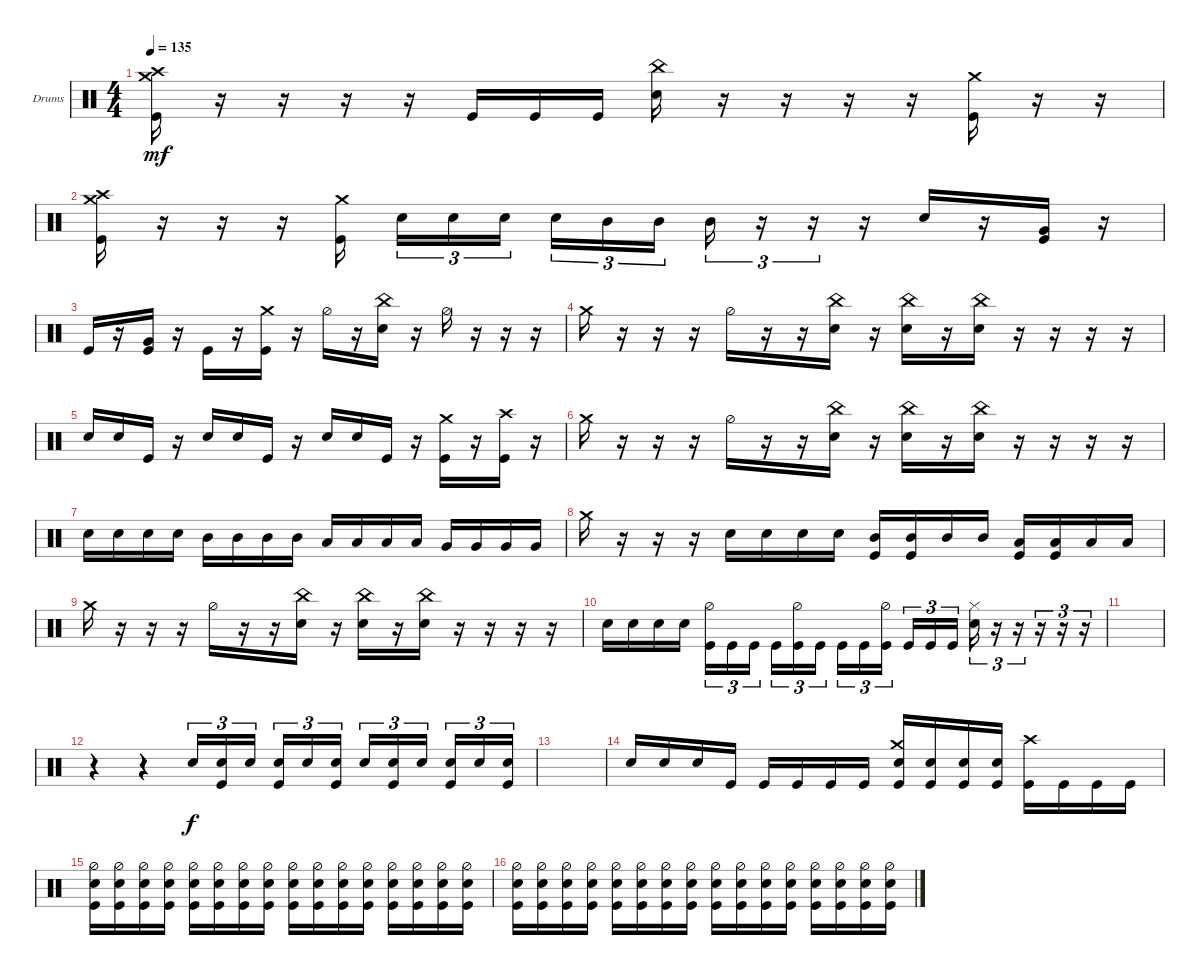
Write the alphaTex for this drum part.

\bracketExtendMode groupsimilarinstruments
\firstSystemTrackNameOrientation horizontal
\otherSystemsTrackNameOrientation horizontal
\track ("Drumkit" "Drums") {instrument percussion}
\staff {score}
\articulation defaults
\ts (4 4)
\tempo 135
\clef neutral
\ks c
("Kick (hit)" "Crash medium (hit)" "Crash high (hit)").16{dy mf} r.16 r.16 r.16 r.16 "Kick (hit)".16 "Kick (hit)".16 "Kick (hit)".16 ("Snare (hit) 2" "China (hit)").16 r.16 r.16 r.16 r.16 ("Crash medium (hit)" "Kick (hit)").16 r.16 r.16 |
("Kick (hit)" "Crash medium (hit)" "Crash high (hit)").16 r.16 r.16 r.16 ("Crash medium (hit)" "Kick (hit)").16 "Snare (hit) 2".16{tu (3 2)} "Snare (hit) 2".16{tu (3 2)} "Snare (hit) 2".16{tu (3 2)} "Snare (hit) 2".16{tu (3 2)} "Mid Tom (hit)".16{tu (3 2)} "Mid Tom (hit)".16{tu (3 2)} "Mid Tom (hit)".16{tu (3 2)} r.16{tu (3 2)} r.16{tu (3 2)} r.16 "Snare (hit) 2".16 r.16 ("Kick (hit)" "Very Low Tom (hit)").16 r.16 |
"Kick (hit)".16 r.16 ("Kick (hit)" "Very Low Tom (hit)").16 r.16 "Kick (hit)".16 r.16 ("Crash medium (hit)" "Kick (hit)").16 r.16 "Hi-Hat (half)".16 r.16 ("China (hit)" "Snare (hit) 2").16 r.16 "Hi-Hat (half)".16 r.16 r.16 r.16 |
"Crash medium (hit)".16 r.16 r.16 r.16 "Hi-Hat (half)".16 r.16 r.16 ("Snare (hit) 2" "China (hit)").16 r.16 ("Snare (hit) 2" "China (hit)").16 r.16 ("Snare (hit) 2" "China (hit)").16 r.16 r.16 r.16 r.16 |
"Snare (hit) 2".16 "Snare (hit) 2".16 "Kick (hit)".16 r.16 "Snare (hit) 2".16 "Snare (hit) 2".16 "Kick (hit)".16 r.16 "Snare (hit) 2".16 "Snare (hit) 2".16 "Kick (hit)".16 r.16 ("Kick (hit)" "Crash medium (hit)").16 r.16 ("Kick (hit)" "Crash high (hit)").16 r.16 |
"Crash medium (hit)".16 r.16 r.16 r.16 "Hi-Hat (half)".16 r.16 r.16 ("Snare (hit) 2" "China (hit)").16 r.16 ("Snare (hit) 2" "China (hit)").16 r.16 ("Snare (hit) 2" "China (hit)").16 r.16 r.16 r.16 r.16 |
"Snare (hit) 2".16 "Snare (hit) 2".16 "Snare (hit) 2".16 "Snare (hit) 2".16 "Mid Tom (hit)".16 "Mid Tom (hit)".16 "Mid Tom (hit)".16 "Mid Tom (hit)".16 "Low Tom (hit)".16 "Low Tom (hit)".16 "Low Tom (hit)".16 "Low Tom (hit)".16 "Very Low Tom (hit)".16 "Very Low Tom (hit)".16 "Very Low Tom (hit)".16 "Very Low Tom (hit)".16 |
"Crash medium (hit)".16 r.16 r.16 r.16 "Snare (hit) 2".16 "Snare (hit) 2".16 "Snare (hit) 2".16 "Snare (hit) 2".16 ("Mid Tom (hit)" "Kick (hit)").16 ("Mid Tom (hit)" "Kick (hit)").16 "Mid Tom (hit)".16 "Mid Tom (hit)".16 ("Low Tom (hit)" "Kick (hit)").16 ("Low Tom (hit)" "Kick (hit)").16 "Low Tom (hit)".16 "Low Tom (hit)".16 |
"Crash medium (hit)".16 r.16 r.16 r.16 "Hi-Hat (half)".16 r.16 r.16 ("Snare (hit) 2" "China (hit)").16 r.16 ("Snare (hit) 2" "China (hit)").16 r.16 ("Snare (hit) 2" "China (hit)").16 r.16 r.16 r.16 r.16 |
"Snare (hit) 2".16 "Snare (hit) 2".16 "Snare (hit) 2".16 "Snare (hit) 2".16 ("Kick (hit)" "Hi-Hat (half)").16{tu (3 2)} "Kick (hit)".16{tu (3 2)} "Kick (hit)".16{tu (3 2)} "Kick (hit)".16{tu (3 2)} ("Kick (hit)" "Hi-Hat (half)").16{tu (3 2)} "Kick (hit)".16{tu (3 2)} "Kick (hit)".16{tu (3 2)} "Kick (hit)".16{tu (3 2)} ("Kick (hit)" "Hi-Hat (half)").16{tu (3 2)} "Kick (hit)".16{tu (3 2)} "Kick (hit)".16{tu (3 2)} "Kick (hit)".16{tu (3 2)} ("Hi-Hat (closed)" "Snare (hit) 2").16{tu (3 2)} r.16{tu (3 2)} r.16{tu (3 2)} r.16{tu (3 2)} r.16{tu (3 2)} r.16{tu (3 2)} |
|
r.4 r.4 "Snare (hit) 2".16{tu (3 2) dy f} ("Snare (hit) 2" "Kick (hit)").16{tu (3 2)} "Snare (hit) 2".16{tu (3 2)} ("Snare (hit) 2" "Kick (hit)").16{tu (3 2)} "Snare (hit) 2".16{tu (3 2)} ("Snare (hit) 2" "Kick (hit)").16{tu (3 2)} "Snare (hit) 2".16{tu (3 2)} ("Snare (hit) 2" "Kick (hit)").16{tu (3 2)} "Snare (hit) 2".16{tu (3 2)} ("Snare (hit) 2" "Kick (hit)").16{tu (3 2)} "Snare (hit) 2".16{tu (3 2)} ("Snare (hit) 2" "Kick (hit)").16{tu (3 2)} |
|
"Snare (hit) 2".16 "Snare (hit) 2".16 "Snare (hit) 2".16 "Kick (hit)".16 "Kick (hit)".16 "Kick (hit)".16 "Kick (hit)".16 "Kick (hit)".16 ("Kick (hit)" "Snare (hit) 2" "Crash medium (hit)").16 ("Kick (hit)" "Snare (hit) 2").16 ("Kick (hit)" "Snare (hit) 2").16 ("Kick (hit)" "Snare (hit) 2").16 ("Kick (hit)" "Crash high (hit)").16 "Kick (hit)".16 "Kick (hit)".16 "Kick (hit)".16 |
("Hi-Hat (half)" "Snare (hit) 2" "Kick (hit)").16 ("Hi-Hat (half)" "Snare (hit) 2" "Kick (hit)").16 ("Hi-Hat (half)" "Snare (hit) 2" "Kick (hit)").16 ("Hi-Hat (half)" "Snare (hit) 2" "Kick (hit)").16 ("Hi-Hat (half)" "Snare (hit) 2" "Kick (hit)").16 ("Hi-Hat (half)" "Snare (hit) 2" "Kick (hit)").16 ("Hi-Hat (half)" "Snare (hit) 2" "Kick (hit)").16 ("Hi-Hat (half)" "Snare (hit) 2" "Kick (hit)").16 ("Hi-Hat (half)" "Snare (hit) 2" "Kick (hit)").16 ("Hi-Hat (half)" "Snare (hit) 2" "Kick (hit)").16 ("Hi-Hat (half)" "Snare (hit) 2" "Kick (hit)").16 ("Hi-Hat (half)" "Snare (hit) 2" "Kick (hit)").16 ("Hi-Hat (half)" "Snare (hit) 2" "Kick (hit)").16 ("Hi-Hat (half)" "Snare (hit) 2" "Kick (hit)").16 ("Hi-Hat (half)" "Snare (hit) 2" "Kick (hit)").16 ("Hi-Hat (half)" "Snare (hit) 2" "Kick (hit)").16 |
("Hi-Hat (half)" "Snare (hit) 2" "Kick (hit)").16 ("Hi-Hat (half)" "Snare (hit) 2" "Kick (hit)").16 ("Hi-Hat (half)" "Snare (hit) 2" "Kick (hit)").16 ("Hi-Hat (half)" "Snare (hit) 2" "Kick (hit)").16 ("Hi-Hat (half)" "Snare (hit) 2" "Kick (hit)").16 ("Hi-Hat (half)" "Snare (hit) 2" "Kick (hit)").16 ("Hi-Hat (half)" "Snare (hit) 2" "Kick (hit)").16 ("Hi-Hat (half)" "Snare (hit) 2" "Kick (hit)").16 ("Hi-Hat (half)" "Snare (hit) 2" "Kick (hit)").16 ("Hi-Hat (half)" "Snare (hit) 2" "Kick (hit)").16 ("Hi-Hat (half)" "Snare (hit) 2" "Kick (hit)").16 ("Hi-Hat (half)" "Snare (hit) 2" "Kick (hit)").16 ("Hi-Hat (half)" "Snare (hit) 2" "Kick (hit)").16 ("Hi-Hat (half)" "Snare (hit) 2" "Kick (hit)").16 ("Hi-Hat (half)" "Snare (hit) 2" "Kick (hit)").16 ("Hi-Hat (half)" "Snare (hit) 2" "Kick (hit)").16
